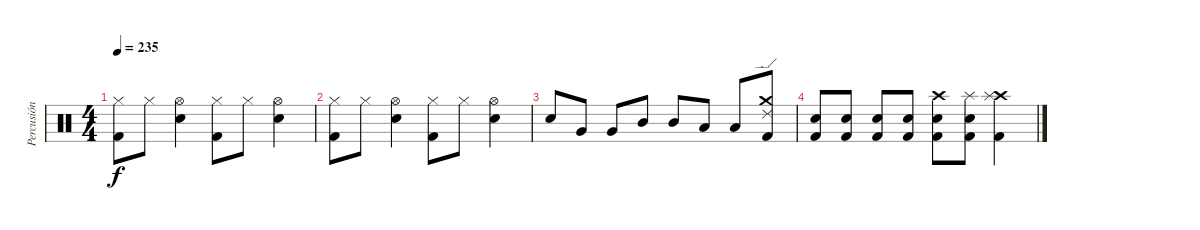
\track ("Percusión" "Percusión") {instrument percussion}
\staff {score}
\articulation defaults
\ts (4 4)
\tempo 235
\clef neutral
\ks c
("Hi-Hat (closed)" "Kick (hit) 2").8{dy f} "Hi-Hat (closed)".8 ("Electric Snare (hit)" "Hi-Hat (open)").4 ("Hi-Hat (closed)" "Kick (hit) 2").8 "Hi-Hat (closed)".8 ("Electric Snare (hit)" "Hi-Hat (open)").4 |
("Hi-Hat (closed)" "Kick (hit) 2").8 "Hi-Hat (closed)".8 ("Electric Snare (hit)" "Hi-Hat (open)").4 ("Hi-Hat (closed)" "Kick (hit) 2").8 "Hi-Hat (closed)".8 ("Electric Snare (hit)" "Hi-Hat (open)").4 |
"Electric Snare (hit)".8 "Very Low Tom (hit)".8 "Very Low Tom (hit)".8 "Mid Tom (hit)".8 "Mid Tom (hit)".8 "Low Tom (hit)".8 "Low Tom (hit)".8 ("Kick (hit) 2" "Crash medium (hit)" "Ride (edge) 2").8 |
("Electric Snare (hit)" "Kick (hit) 2").8 ("Electric Snare (hit)" "Kick (hit) 2").8 ("Electric Snare (hit)" "Kick (hit) 2").8 ("Electric Snare (hit)" "Kick (hit) 2").8 ("Electric Snare (hit)" "Crash high (hit)" "Kick (hit) 2").8 ("Electric Snare (hit)" "Splash (hit)" "Kick (hit) 2").8 ("Kick (hit) 2" "Crash high (hit)" "Splash (hit)").4
